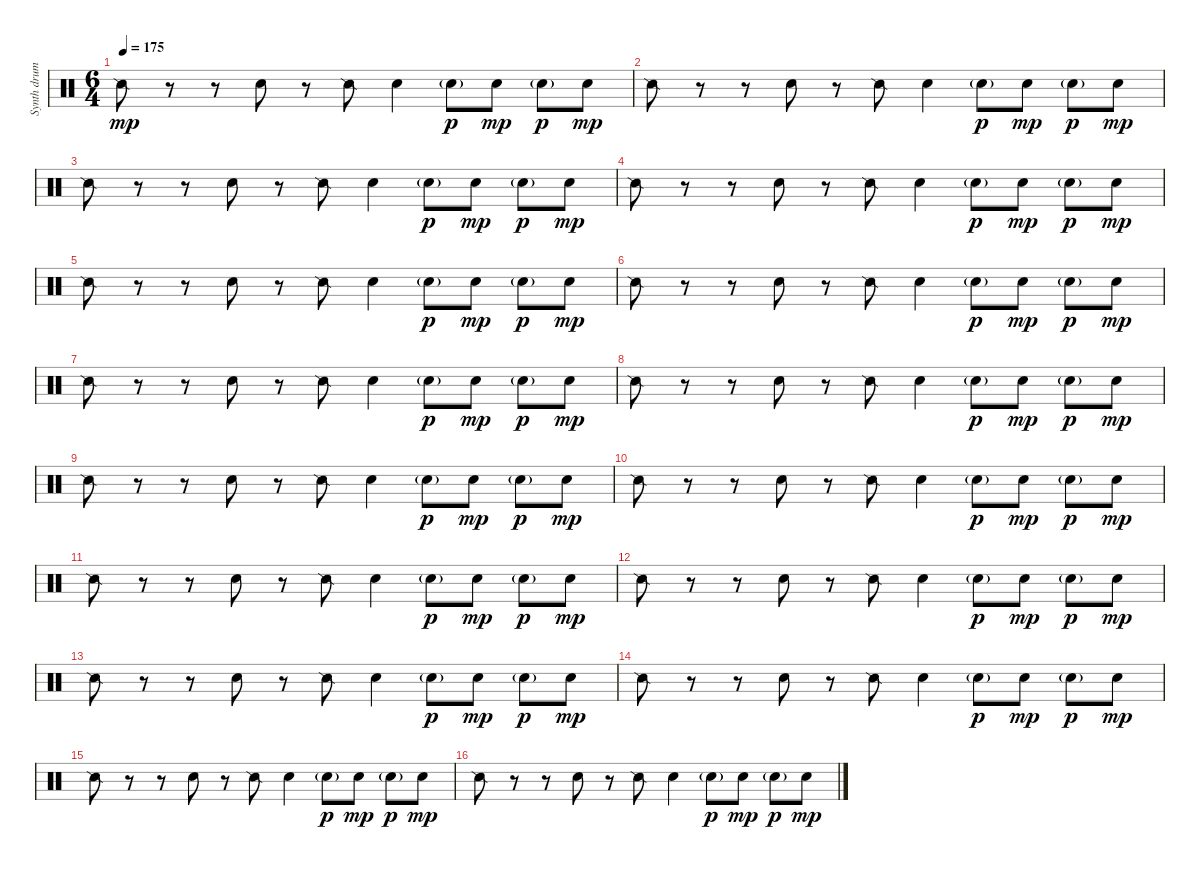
\track ("Synth drums" "Synth drum") {instrument percussion}
\staff {score}
\articulation defaults
\ts (6 4)
\tempo 175
\clef neutral
\ks c "Snare (side stick) 2".8{dy mp}
r.8 r.8 "Hand Clap (hit)".8 r.8 "Snare (side stick) 2".8 "Hand Clap (hit)".4 "Hand Clap (hit)"{g}.8{dy p} "Hand Clap (hit)".8{dy mp} "Hand Clap (hit)"{g}.8{dy p} "Hand Clap (hit)".8{dy mp} |
"Snare (side stick) 2".8 r.8 r.8 "Hand Clap (hit)".8 r.8 "Snare (side stick) 2".8 "Hand Clap (hit)".4 "Hand Clap (hit)"{g}.8{dy p} "Hand Clap (hit)".8{dy mp} "Hand Clap (hit)"{g}.8{dy p} "Hand Clap (hit)".8{dy mp} |
"Snare (side stick) 2".8 r.8 r.8 "Hand Clap (hit)".8 r.8 "Snare (side stick) 2".8 "Hand Clap (hit)".4 "Hand Clap (hit)"{g}.8{dy p} "Hand Clap (hit)".8{dy mp} "Hand Clap (hit)"{g}.8{dy p} "Hand Clap (hit)".8{dy mp} |
"Snare (side stick) 2".8 r.8 r.8 "Hand Clap (hit)".8 r.8 "Snare (side stick) 2".8 "Hand Clap (hit)".4 "Hand Clap (hit)"{g}.8{dy p} "Hand Clap (hit)".8{dy mp} "Hand Clap (hit)"{g}.8{dy p} "Hand Clap (hit)".8{dy mp} |
"Snare (side stick) 2".8 r.8 r.8 "Hand Clap (hit)".8 r.8 "Snare (side stick) 2".8 "Hand Clap (hit)".4 "Hand Clap (hit)"{g}.8{dy p} "Hand Clap (hit)".8{dy mp} "Hand Clap (hit)"{g}.8{dy p} "Hand Clap (hit)".8{dy mp} |
"Snare (side stick) 2".8 r.8 r.8 "Hand Clap (hit)".8 r.8 "Snare (side stick) 2".8 "Hand Clap (hit)".4 "Hand Clap (hit)"{g}.8{dy p} "Hand Clap (hit)".8{dy mp} "Hand Clap (hit)"{g}.8{dy p} "Hand Clap (hit)".8{dy mp} |
"Snare (side stick) 2".8 r.8 r.8 "Hand Clap (hit)".8 r.8 "Snare (side stick) 2".8 "Hand Clap (hit)".4 "Hand Clap (hit)"{g}.8{dy p} "Hand Clap (hit)".8{dy mp} "Hand Clap (hit)"{g}.8{dy p} "Hand Clap (hit)".8{dy mp} |
"Snare (side stick) 2".8 r.8 r.8 "Hand Clap (hit)".8 r.8 "Snare (side stick) 2".8 "Hand Clap (hit)".4 "Hand Clap (hit)"{g}.8{dy p} "Hand Clap (hit)".8{dy mp} "Hand Clap (hit)"{g}.8{dy p} "Hand Clap (hit)".8{dy mp} |
"Snare (side stick) 2".8 r.8 r.8 "Hand Clap (hit)".8 r.8 "Snare (side stick) 2".8 "Hand Clap (hit)".4 "Hand Clap (hit)"{g}.8{dy p} "Hand Clap (hit)".8{dy mp} "Hand Clap (hit)"{g}.8{dy p} "Hand Clap (hit)".8{dy mp} |
"Snare (side stick) 2".8 r.8 r.8 "Hand Clap (hit)".8 r.8 "Snare (side stick) 2".8 "Hand Clap (hit)".4 "Hand Clap (hit)"{g}.8{dy p} "Hand Clap (hit)".8{dy mp} "Hand Clap (hit)"{g}.8{dy p} "Hand Clap (hit)".8{dy mp} |
"Snare (side stick) 2".8 r.8 r.8 "Hand Clap (hit)".8 r.8 "Snare (side stick) 2".8 "Hand Clap (hit)".4 "Hand Clap (hit)"{g}.8{dy p} "Hand Clap (hit)".8{dy mp} "Hand Clap (hit)"{g}.8{dy p} "Hand Clap (hit)".8{dy mp} |
"Snare (side stick) 2".8 r.8 r.8 "Hand Clap (hit)".8 r.8 "Snare (side stick) 2".8 "Hand Clap (hit)".4 "Hand Clap (hit)"{g}.8{dy p} "Hand Clap (hit)".8{dy mp} "Hand Clap (hit)"{g}.8{dy p} "Hand Clap (hit)".8{dy mp} |
"Snare (side stick) 2".8 r.8 r.8 "Hand Clap (hit)".8 r.8 "Snare (side stick) 2".8 "Hand Clap (hit)".4 "Hand Clap (hit)"{g}.8{dy p} "Hand Clap (hit)".8{dy mp} "Hand Clap (hit)"{g}.8{dy p} "Hand Clap (hit)".8{dy mp} |
"Snare (side stick) 2".8 r.8 r.8 "Hand Clap (hit)".8 r.8 "Snare (side stick) 2".8 "Hand Clap (hit)".4 "Hand Clap (hit)"{g}.8{dy p} "Hand Clap (hit)".8{dy mp} "Hand Clap (hit)"{g}.8{dy p} "Hand Clap (hit)".8{dy mp} |
"Snare (side stick) 2".8 r.8 r.8 "Hand Clap (hit)".8 r.8 "Snare (side stick) 2".8 "Hand Clap (hit)".4 "Hand Clap (hit)"{g}.8{dy p} "Hand Clap (hit)".8{dy mp} "Hand Clap (hit)"{g}.8{dy p} "Hand Clap (hit)".8{dy mp} |
"Snare (side stick) 2".8 r.8 r.8 "Hand Clap (hit)".8 r.8 "Snare (side stick) 2".8 "Hand Clap (hit)".4 "Hand Clap (hit)"{g}.8{dy p} "Hand Clap (hit)".8{dy mp} "Hand Clap (hit)"{g}.8{dy p} "Hand Clap (hit)".8{dy mp}
